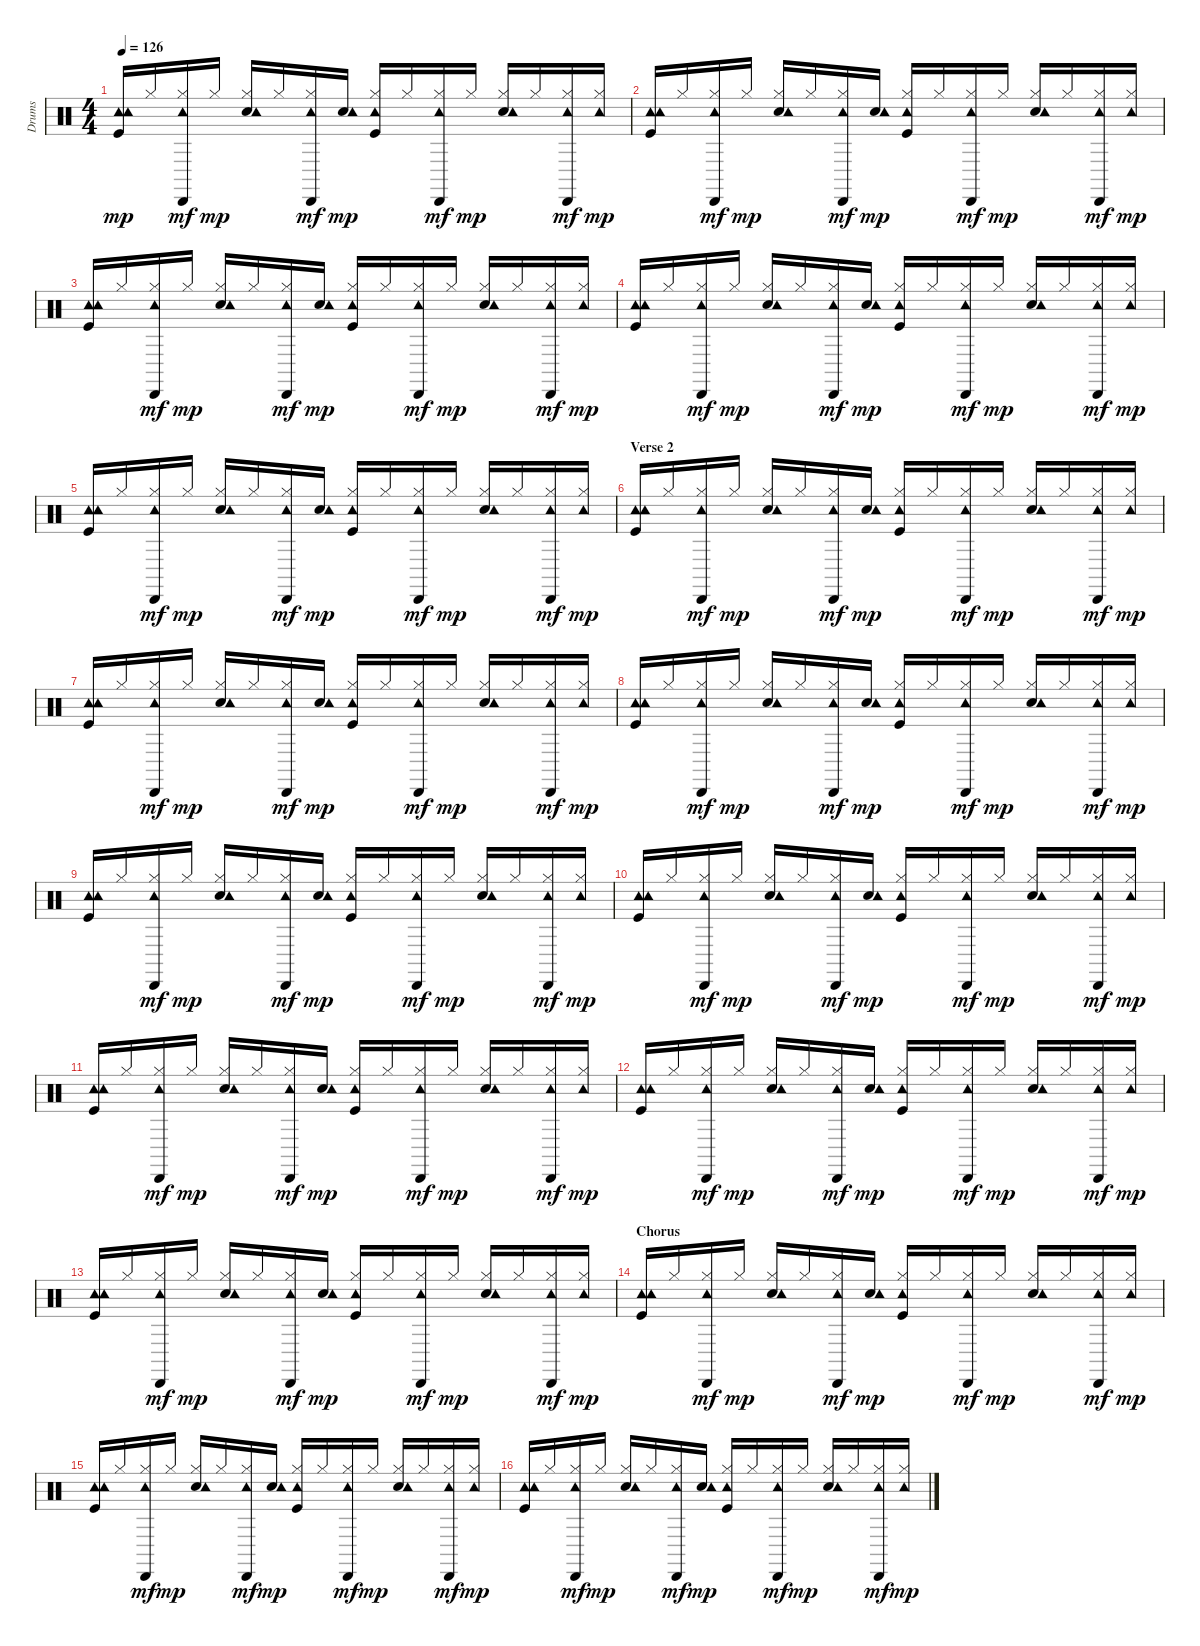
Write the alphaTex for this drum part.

\track ("Drums" "Drums") {instrument percussion}
\staff {score}
\articulation defaults
\ts (4 4)
\tempo 126
\clef neutral
\ks c
("Kick (hit)" "Tambourine (hit)" "Tambourine (hit)").16{dy mp} "Hi-Hat (closed)".16 ("Hi-Hat (closed)" "Tambourine (hit)" "Cabasa (hit)").16{dy mf} "Hi-Hat (closed)".16{dy mp} ("Snare (hit) 2" "Hi-Hat (closed)" "Tambourine (hit)").16 "Hi-Hat (closed)".16 ("Hi-Hat (closed)" "Tambourine (hit)" "Cabasa (hit)").16{dy mf} ("Snare (hit) 2" "Tambourine (hit)").16{dy mp} ("Kick (hit)" "Hi-Hat (closed)" "Tambourine (hit)").16 "Hi-Hat (closed)".16 ("Hi-Hat (closed)" "Tambourine (hit)" "Cabasa (hit)").16{dy mf} "Hi-Hat (closed)".16{dy mp} ("Snare (hit) 2" "Hi-Hat (closed)" "Tambourine (hit)").16 "Hi-Hat (closed)".16 ("Hi-Hat (closed)" "Tambourine (hit)" "Cabasa (hit)").16{dy mf} ("Hi-Hat (closed)" "Tambourine (hit)").16{dy mp} |
("Kick (hit)" "Tambourine (hit)" "Tambourine (hit)").16 "Hi-Hat (closed)".16 ("Hi-Hat (closed)" "Tambourine (hit)" "Cabasa (hit)").16{dy mf} "Hi-Hat (closed)".16{dy mp} ("Snare (hit) 2" "Hi-Hat (closed)" "Tambourine (hit)").16 "Hi-Hat (closed)".16 ("Hi-Hat (closed)" "Tambourine (hit)" "Cabasa (hit)").16{dy mf} ("Snare (hit) 2" "Tambourine (hit)").16{dy mp} ("Kick (hit)" "Hi-Hat (closed)" "Tambourine (hit)").16 "Hi-Hat (closed)".16 ("Hi-Hat (closed)" "Tambourine (hit)" "Cabasa (hit)").16{dy mf} "Hi-Hat (closed)".16{dy mp} ("Snare (hit) 2" "Hi-Hat (closed)" "Tambourine (hit)").16 "Hi-Hat (closed)".16 ("Hi-Hat (closed)" "Tambourine (hit)" "Cabasa (hit)").16{dy mf} ("Hi-Hat (closed)" "Tambourine (hit)").16{dy mp} |
("Kick (hit)" "Tambourine (hit)" "Tambourine (hit)").16 "Hi-Hat (closed)".16 ("Hi-Hat (closed)" "Tambourine (hit)" "Cabasa (hit)").16{dy mf} "Hi-Hat (closed)".16{dy mp} ("Snare (hit) 2" "Hi-Hat (closed)" "Tambourine (hit)").16 "Hi-Hat (closed)".16 ("Hi-Hat (closed)" "Tambourine (hit)" "Cabasa (hit)").16{dy mf} ("Snare (hit) 2" "Tambourine (hit)").16{dy mp} ("Kick (hit)" "Hi-Hat (closed)" "Tambourine (hit)").16 "Hi-Hat (closed)".16 ("Hi-Hat (closed)" "Tambourine (hit)" "Cabasa (hit)").16{dy mf} "Hi-Hat (closed)".16{dy mp} ("Snare (hit) 2" "Hi-Hat (closed)" "Tambourine (hit)").16 "Hi-Hat (closed)".16 ("Hi-Hat (closed)" "Tambourine (hit)" "Cabasa (hit)").16{dy mf} ("Hi-Hat (closed)" "Tambourine (hit)").16{dy mp} |
("Kick (hit)" "Tambourine (hit)" "Tambourine (hit)").16 "Hi-Hat (closed)".16 ("Hi-Hat (closed)" "Tambourine (hit)" "Cabasa (hit)").16{dy mf} "Hi-Hat (closed)".16{dy mp} ("Snare (hit) 2" "Hi-Hat (closed)" "Tambourine (hit)").16 "Hi-Hat (closed)".16 ("Hi-Hat (closed)" "Tambourine (hit)" "Cabasa (hit)").16{dy mf} ("Snare (hit) 2" "Tambourine (hit)").16{dy mp} ("Kick (hit)" "Hi-Hat (closed)" "Tambourine (hit)").16 "Hi-Hat (closed)".16 ("Hi-Hat (closed)" "Tambourine (hit)" "Cabasa (hit)").16{dy mf} "Hi-Hat (closed)".16{dy mp} ("Snare (hit) 2" "Hi-Hat (closed)" "Tambourine (hit)").16 "Hi-Hat (closed)".16 ("Hi-Hat (closed)" "Tambourine (hit)" "Cabasa (hit)").16{dy mf} ("Hi-Hat (closed)" "Tambourine (hit)").16{dy mp} |
("Kick (hit)" "Tambourine (hit)" "Tambourine (hit)").16 "Hi-Hat (closed)".16 ("Hi-Hat (closed)" "Tambourine (hit)" "Cabasa (hit)").16{dy mf} "Hi-Hat (closed)".16{dy mp} ("Snare (hit) 2" "Hi-Hat (closed)" "Tambourine (hit)").16 "Hi-Hat (closed)".16 ("Hi-Hat (closed)" "Tambourine (hit)" "Cabasa (hit)").16{dy mf} ("Snare (hit) 2" "Tambourine (hit)").16{dy mp} ("Kick (hit)" "Hi-Hat (closed)" "Tambourine (hit)").16 "Hi-Hat (closed)".16 ("Hi-Hat (closed)" "Tambourine (hit)" "Cabasa (hit)").16{dy mf} "Hi-Hat (closed)".16{dy mp} ("Snare (hit) 2" "Hi-Hat (closed)" "Tambourine (hit)").16 "Hi-Hat (closed)".16 ("Hi-Hat (closed)" "Tambourine (hit)" "Cabasa (hit)").16{dy mf} ("Hi-Hat (closed)" "Tambourine (hit)").16{dy mp} |
\section ("" "Verse 2")
("Kick (hit)" "Tambourine (hit)" "Tambourine (hit)").16 "Hi-Hat (closed)".16 ("Hi-Hat (closed)" "Tambourine (hit)" "Cabasa (hit)").16{dy mf} "Hi-Hat (closed)".16{dy mp} ("Snare (hit) 2" "Hi-Hat (closed)" "Tambourine (hit)").16 "Hi-Hat (closed)".16 ("Hi-Hat (closed)" "Tambourine (hit)" "Cabasa (hit)").16{dy mf} ("Snare (hit) 2" "Tambourine (hit)").16{dy mp} ("Kick (hit)" "Hi-Hat (closed)" "Tambourine (hit)").16 "Hi-Hat (closed)".16 ("Hi-Hat (closed)" "Tambourine (hit)" "Cabasa (hit)").16{dy mf} "Hi-Hat (closed)".16{dy mp} ("Snare (hit) 2" "Hi-Hat (closed)" "Tambourine (hit)").16 "Hi-Hat (closed)".16 ("Hi-Hat (closed)" "Tambourine (hit)" "Cabasa (hit)").16{dy mf} ("Hi-Hat (closed)" "Tambourine (hit)").16{dy mp} |
("Kick (hit)" "Tambourine (hit)" "Tambourine (hit)").16 "Hi-Hat (closed)".16 ("Hi-Hat (closed)" "Tambourine (hit)" "Cabasa (hit)").16{dy mf} "Hi-Hat (closed)".16{dy mp} ("Snare (hit) 2" "Hi-Hat (closed)" "Tambourine (hit)").16 "Hi-Hat (closed)".16 ("Hi-Hat (closed)" "Tambourine (hit)" "Cabasa (hit)").16{dy mf} ("Snare (hit) 2" "Tambourine (hit)").16{dy mp} ("Kick (hit)" "Hi-Hat (closed)" "Tambourine (hit)").16 "Hi-Hat (closed)".16 ("Hi-Hat (closed)" "Tambourine (hit)" "Cabasa (hit)").16{dy mf} "Hi-Hat (closed)".16{dy mp} ("Snare (hit) 2" "Hi-Hat (closed)" "Tambourine (hit)").16 "Hi-Hat (closed)".16 ("Hi-Hat (closed)" "Tambourine (hit)" "Cabasa (hit)").16{dy mf} ("Hi-Hat (closed)" "Tambourine (hit)").16{dy mp} |
("Kick (hit)" "Tambourine (hit)" "Tambourine (hit)").16 "Hi-Hat (closed)".16 ("Hi-Hat (closed)" "Tambourine (hit)" "Cabasa (hit)").16{dy mf} "Hi-Hat (closed)".16{dy mp} ("Snare (hit) 2" "Hi-Hat (closed)" "Tambourine (hit)").16 "Hi-Hat (closed)".16 ("Hi-Hat (closed)" "Tambourine (hit)" "Cabasa (hit)").16{dy mf} ("Snare (hit) 2" "Tambourine (hit)").16{dy mp} ("Kick (hit)" "Hi-Hat (closed)" "Tambourine (hit)").16 "Hi-Hat (closed)".16 ("Hi-Hat (closed)" "Tambourine (hit)" "Cabasa (hit)").16{dy mf} "Hi-Hat (closed)".16{dy mp} ("Snare (hit) 2" "Hi-Hat (closed)" "Tambourine (hit)").16 "Hi-Hat (closed)".16 ("Hi-Hat (closed)" "Tambourine (hit)" "Cabasa (hit)").16{dy mf} ("Hi-Hat (closed)" "Tambourine (hit)").16{dy mp} |
("Kick (hit)" "Tambourine (hit)" "Tambourine (hit)").16 "Hi-Hat (closed)".16 ("Hi-Hat (closed)" "Tambourine (hit)" "Cabasa (hit)").16{dy mf} "Hi-Hat (closed)".16{dy mp} ("Snare (hit) 2" "Hi-Hat (closed)" "Tambourine (hit)").16 "Hi-Hat (closed)".16 ("Hi-Hat (closed)" "Tambourine (hit)" "Cabasa (hit)").16{dy mf} ("Snare (hit) 2" "Tambourine (hit)").16{dy mp} ("Kick (hit)" "Hi-Hat (closed)" "Tambourine (hit)").16 "Hi-Hat (closed)".16 ("Hi-Hat (closed)" "Tambourine (hit)" "Cabasa (hit)").16{dy mf} "Hi-Hat (closed)".16{dy mp} ("Snare (hit) 2" "Hi-Hat (closed)" "Tambourine (hit)").16 "Hi-Hat (closed)".16 ("Hi-Hat (closed)" "Tambourine (hit)" "Cabasa (hit)").16{dy mf} ("Hi-Hat (closed)" "Tambourine (hit)").16{dy mp} |
("Kick (hit)" "Tambourine (hit)" "Tambourine (hit)").16 "Hi-Hat (closed)".16 ("Hi-Hat (closed)" "Tambourine (hit)" "Cabasa (hit)").16{dy mf} "Hi-Hat (closed)".16{dy mp} ("Snare (hit) 2" "Hi-Hat (closed)" "Tambourine (hit)").16 "Hi-Hat (closed)".16 ("Hi-Hat (closed)" "Tambourine (hit)" "Cabasa (hit)").16{dy mf} ("Snare (hit) 2" "Tambourine (hit)").16{dy mp} ("Kick (hit)" "Hi-Hat (closed)" "Tambourine (hit)").16 "Hi-Hat (closed)".16 ("Hi-Hat (closed)" "Tambourine (hit)" "Cabasa (hit)").16{dy mf} "Hi-Hat (closed)".16{dy mp} ("Snare (hit) 2" "Hi-Hat (closed)" "Tambourine (hit)").16 "Hi-Hat (closed)".16 ("Hi-Hat (closed)" "Tambourine (hit)" "Cabasa (hit)").16{dy mf} ("Hi-Hat (closed)" "Tambourine (hit)").16{dy mp} |
("Kick (hit)" "Tambourine (hit)" "Tambourine (hit)").16 "Hi-Hat (closed)".16 ("Hi-Hat (closed)" "Tambourine (hit)" "Cabasa (hit)").16{dy mf} "Hi-Hat (closed)".16{dy mp} ("Snare (hit) 2" "Hi-Hat (closed)" "Tambourine (hit)").16 "Hi-Hat (closed)".16 ("Hi-Hat (closed)" "Tambourine (hit)" "Cabasa (hit)").16{dy mf} ("Snare (hit) 2" "Tambourine (hit)").16{dy mp} ("Kick (hit)" "Hi-Hat (closed)" "Tambourine (hit)").16 "Hi-Hat (closed)".16 ("Hi-Hat (closed)" "Tambourine (hit)" "Cabasa (hit)").16{dy mf} "Hi-Hat (closed)".16{dy mp} ("Snare (hit) 2" "Hi-Hat (closed)" "Tambourine (hit)").16 "Hi-Hat (closed)".16 ("Hi-Hat (closed)" "Tambourine (hit)" "Cabasa (hit)").16{dy mf} ("Hi-Hat (closed)" "Tambourine (hit)").16{dy mp} |
("Kick (hit)" "Tambourine (hit)" "Tambourine (hit)").16 "Hi-Hat (closed)".16 ("Hi-Hat (closed)" "Tambourine (hit)" "Cabasa (hit)").16{dy mf} "Hi-Hat (closed)".16{dy mp} ("Snare (hit) 2" "Hi-Hat (closed)" "Tambourine (hit)").16 "Hi-Hat (closed)".16 ("Hi-Hat (closed)" "Tambourine (hit)" "Cabasa (hit)").16{dy mf} ("Snare (hit) 2" "Tambourine (hit)").16{dy mp} ("Kick (hit)" "Hi-Hat (closed)" "Tambourine (hit)").16 "Hi-Hat (closed)".16 ("Hi-Hat (closed)" "Tambourine (hit)" "Cabasa (hit)").16{dy mf} "Hi-Hat (closed)".16{dy mp} ("Snare (hit) 2" "Hi-Hat (closed)" "Tambourine (hit)").16 "Hi-Hat (closed)".16 ("Hi-Hat (closed)" "Tambourine (hit)" "Cabasa (hit)").16{dy mf} ("Hi-Hat (closed)" "Tambourine (hit)").16{dy mp} |
("Kick (hit)" "Tambourine (hit)" "Tambourine (hit)").16 "Hi-Hat (closed)".16 ("Hi-Hat (closed)" "Tambourine (hit)" "Cabasa (hit)").16{dy mf} "Hi-Hat (closed)".16{dy mp} ("Snare (hit) 2" "Hi-Hat (closed)" "Tambourine (hit)").16 "Hi-Hat (closed)".16 ("Hi-Hat (closed)" "Tambourine (hit)" "Cabasa (hit)").16{dy mf} ("Snare (hit) 2" "Tambourine (hit)").16{dy mp} ("Kick (hit)" "Hi-Hat (closed)" "Tambourine (hit)").16 "Hi-Hat (closed)".16 ("Hi-Hat (closed)" "Tambourine (hit)" "Cabasa (hit)").16{dy mf} "Hi-Hat (closed)".16{dy mp} ("Snare (hit) 2" "Hi-Hat (closed)" "Tambourine (hit)").16 "Hi-Hat (closed)".16 ("Hi-Hat (closed)" "Tambourine (hit)" "Cabasa (hit)").16{dy mf} ("Hi-Hat (closed)" "Tambourine (hit)").16{dy mp} |
\section ("" "Chorus")
("Kick (hit)" "Tambourine (hit)" "Tambourine (hit)").16 "Hi-Hat (closed)".16 ("Hi-Hat (closed)" "Tambourine (hit)" "Cabasa (hit)").16{dy mf} "Hi-Hat (closed)".16{dy mp} ("Snare (hit) 2" "Hi-Hat (closed)" "Tambourine (hit)").16 "Hi-Hat (closed)".16 ("Hi-Hat (closed)" "Tambourine (hit)" "Cabasa (hit)").16{dy mf} ("Snare (hit) 2" "Tambourine (hit)").16{dy mp} ("Kick (hit)" "Hi-Hat (closed)" "Tambourine (hit)").16 "Hi-Hat (closed)".16 ("Hi-Hat (closed)" "Tambourine (hit)" "Cabasa (hit)").16{dy mf} "Hi-Hat (closed)".16{dy mp} ("Snare (hit) 2" "Hi-Hat (closed)" "Tambourine (hit)").16 "Hi-Hat (closed)".16 ("Hi-Hat (closed)" "Tambourine (hit)" "Cabasa (hit)").16{dy mf} ("Hi-Hat (closed)" "Tambourine (hit)").16{dy mp} |
("Kick (hit)" "Tambourine (hit)" "Tambourine (hit)").16 "Hi-Hat (closed)".16 ("Hi-Hat (closed)" "Tambourine (hit)" "Cabasa (hit)").16{dy mf} "Hi-Hat (closed)".16{dy mp} ("Snare (hit) 2" "Hi-Hat (closed)" "Tambourine (hit)").16 "Hi-Hat (closed)".16 ("Hi-Hat (closed)" "Tambourine (hit)" "Cabasa (hit)").16{dy mf} ("Snare (hit) 2" "Tambourine (hit)").16{dy mp} ("Kick (hit)" "Hi-Hat (closed)" "Tambourine (hit)").16 "Hi-Hat (closed)".16 ("Hi-Hat (closed)" "Tambourine (hit)" "Cabasa (hit)").16{dy mf} "Hi-Hat (closed)".16{dy mp} ("Snare (hit) 2" "Hi-Hat (closed)" "Tambourine (hit)").16 "Hi-Hat (closed)".16 ("Hi-Hat (closed)" "Tambourine (hit)" "Cabasa (hit)").16{dy mf} ("Hi-Hat (closed)" "Tambourine (hit)").16{dy mp} |
("Kick (hit)" "Tambourine (hit)" "Tambourine (hit)").16 "Hi-Hat (closed)".16 ("Hi-Hat (closed)" "Tambourine (hit)" "Cabasa (hit)").16{dy mf} "Hi-Hat (closed)".16{dy mp} ("Snare (hit) 2" "Hi-Hat (closed)" "Tambourine (hit)").16 "Hi-Hat (closed)".16 ("Hi-Hat (closed)" "Tambourine (hit)" "Cabasa (hit)").16{dy mf} ("Snare (hit) 2" "Tambourine (hit)").16{dy mp} ("Kick (hit)" "Hi-Hat (closed)" "Tambourine (hit)").16 "Hi-Hat (closed)".16 ("Hi-Hat (closed)" "Tambourine (hit)" "Cabasa (hit)").16{dy mf} "Hi-Hat (closed)".16{dy mp} ("Snare (hit) 2" "Hi-Hat (closed)" "Tambourine (hit)").16 "Hi-Hat (closed)".16 ("Hi-Hat (closed)" "Tambourine (hit)" "Cabasa (hit)").16{dy mf} ("Hi-Hat (closed)" "Tambourine (hit)").16{dy mp}
